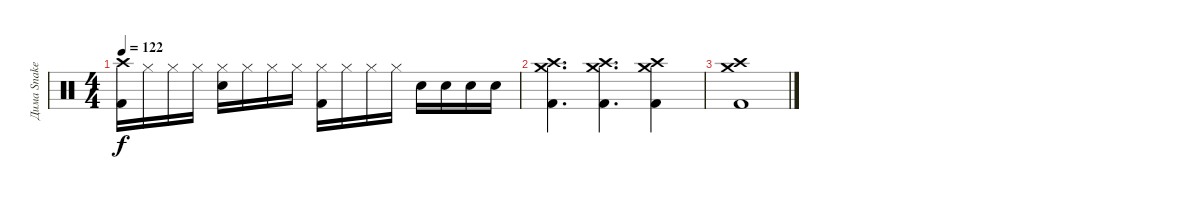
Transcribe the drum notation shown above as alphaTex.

\track ("Дима Snake Хакимов" "Дима Snake") {instrument percussion}
\staff {score}
\articulation defaults
\ts (4 4)
\tempo 122
\clef neutral
\ks c
("Crash high (hit)" "Kick (hit) 2").16{dy f} "Hi-Hat (closed)".16 "Hi-Hat (closed)".16 "Hi-Hat (closed)".16 ("Hi-Hat (closed)" "Snare (hit) 2").16 "Hi-Hat (closed)".16 "Hi-Hat (closed)".16 "Hi-Hat (closed)".16 ("Hi-Hat (closed)" "Kick (hit) 2").16 "Hi-Hat (closed)".16 "Hi-Hat (closed)".16 "Hi-Hat (closed)".16 "Snare (hit) 2".16 "Snare (hit) 2".16 "Snare (hit) 2".16 "Snare (hit) 2".16 |
("Crash high (hit)" "Crash medium (hit)" "Kick (hit) 2").4{d} ("Crash high (hit)" "Crash medium (hit)" "Kick (hit) 2").4{d} ("Crash high (hit)" "Crash medium (hit)" "Kick (hit) 2").4 |
("Crash high (hit)" "Crash medium (hit)" "Kick (hit) 2").1
